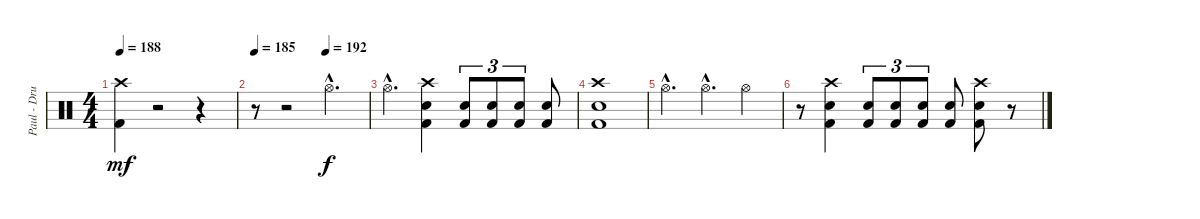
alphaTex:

\track ("Paul - Drums" "Paul - Dru") {instrument percussion}
\staff {score}
\articulation defaults
\ts (4 4)
\tempo 188
\clef neutral
\ks c
("Crash high (hit)" "Kick (hit) 2").4{dy mf} r.2 r.4 |
\tempo 185
\tempo (192 0.625)
r.8 r.2 "Hi-Hat (open)"{hac}.4{d dy f} |
"Hi-Hat (open)"{hac}.4{d} ("Crash high (hit)" "Electric Snare (hit)" "Kick (hit) 2").4 ("Electric Snare (hit)" "Kick (hit) 2").8{tu (3 2)} ("Electric Snare (hit)" "Kick (hit) 2").8{tu (3 2)} ("Electric Snare (hit)" "Kick (hit) 2").8{tu (3 2)} ("Electric Snare (hit)" "Kick (hit) 2").8 |
("Crash high (hit)" "Electric Snare (hit)" "Kick (hit) 2").1 |
"Hi-Hat (open)"{hac}.4{d} "Hi-Hat (open)"{hac}.4{d} "Hi-Hat (open)".4 |
r.8 ("Crash high (hit)" "Electric Snare (hit)" "Kick (hit) 2").4 ("Electric Snare (hit)" "Kick (hit) 2").8{tu (3 2)} ("Electric Snare (hit)" "Kick (hit) 2").8{tu (3 2)} ("Electric Snare (hit)" "Kick (hit) 2").8{tu (3 2)} ("Electric Snare (hit)" "Kick (hit) 2").8 ("Crash high (hit)" "Electric Snare (hit)" "Kick (hit) 2").8 r.8
